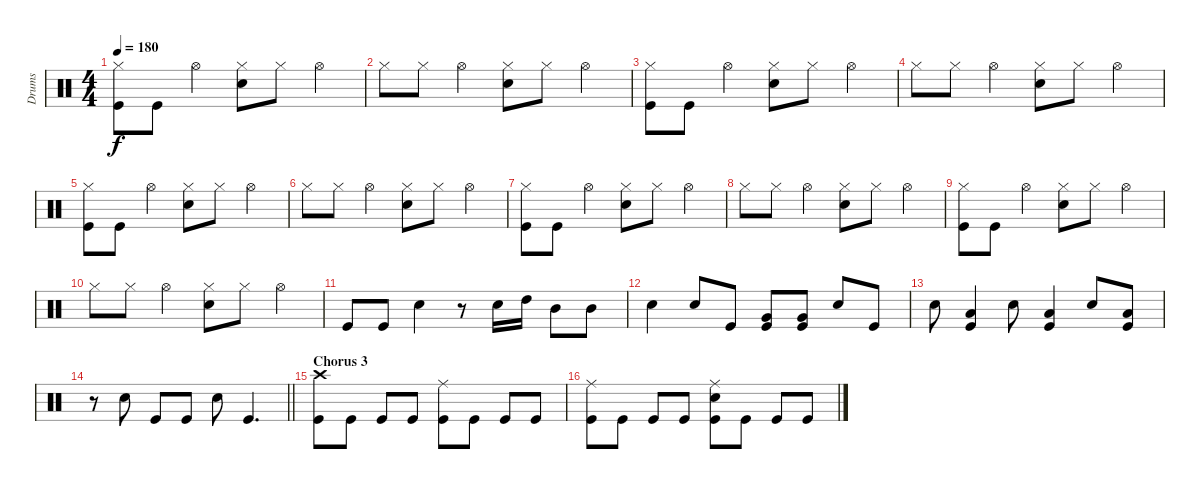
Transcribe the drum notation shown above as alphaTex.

\track ("Drums" "Drums") {instrument percussion}
\staff {score}
\articulation defaults
\ts (4 4)
\tempo 180
\clef neutral
\ks c
("Hi-Hat (closed)" "Kick (hit)").8{dy f} "Kick (hit)".8 "Hi-Hat (open)".4 ("Hi-Hat (closed)" "Snare (hit) 2").8 "Hi-Hat (closed)".8 "Hi-Hat (open)".4 |
"Hi-Hat (closed)".8 "Hi-Hat (closed)".8 "Hi-Hat (open)".4 ("Hi-Hat (closed)" "Snare (hit) 2").8 "Hi-Hat (closed)".8 "Hi-Hat (open)".4 |
("Hi-Hat (closed)" "Kick (hit)").8 "Kick (hit)".8 "Hi-Hat (open)".4 ("Hi-Hat (closed)" "Snare (hit) 2").8 "Hi-Hat (closed)".8 "Hi-Hat (open)".4 |
"Hi-Hat (closed)".8 "Hi-Hat (closed)".8 "Hi-Hat (open)".4 ("Hi-Hat (closed)" "Snare (hit) 2").8 "Hi-Hat (closed)".8 "Hi-Hat (open)".4 |
("Hi-Hat (closed)" "Kick (hit)").8 "Kick (hit)".8 "Hi-Hat (open)".4 ("Hi-Hat (closed)" "Snare (hit) 2").8 "Hi-Hat (closed)".8 "Hi-Hat (open)".4 |
"Hi-Hat (closed)".8 "Hi-Hat (closed)".8 "Hi-Hat (open)".4 ("Hi-Hat (closed)" "Snare (hit) 2").8 "Hi-Hat (closed)".8 "Hi-Hat (open)".4 |
("Hi-Hat (closed)" "Kick (hit)").8 "Kick (hit)".8 "Hi-Hat (open)".4 ("Hi-Hat (closed)" "Snare (hit) 2").8 "Hi-Hat (closed)".8 "Hi-Hat (open)".4 |
"Hi-Hat (closed)".8 "Hi-Hat (closed)".8 "Hi-Hat (open)".4 ("Hi-Hat (closed)" "Snare (hit) 2").8 "Hi-Hat (closed)".8 "Hi-Hat (open)".4 |
("Hi-Hat (closed)" "Kick (hit)").8 "Kick (hit)".8 "Hi-Hat (open)".4 ("Hi-Hat (closed)" "Snare (hit) 2").8 "Hi-Hat (closed)".8 "Hi-Hat (open)".4 |
"Hi-Hat (closed)".8 "Hi-Hat (closed)".8 "Hi-Hat (open)".4 ("Hi-Hat (closed)" "Snare (hit) 2").8 "Hi-Hat (closed)".8 "Hi-Hat (open)".4 |
"Kick (hit)".8 "Kick (hit)".8 "Snare (hit) 2".4 r.8 "Snare (hit) 2".16 "High Tom (hit)".16 "Mid Tom (hit)".8 "Mid Tom (hit)".8 |
"Snare (hit) 2".4 "Snare (hit) 2".8 "Kick (hit)".8 ("Kick (hit)" "Very Low Tom (hit)").8 ("Kick (hit)" "Very Low Tom (hit)").8 "Snare (hit) 2".8 "Kick (hit)".8 |
"Snare (hit) 2".8 ("Kick (hit)" "Low Tom (hit)").4 "Snare (hit) 2".8 ("Kick (hit)" "Low Tom (hit)").4 "Snare (hit) 2".8 ("Kick (hit)" "Low Tom (hit)").8 |
\barLineRight lightlight
r.8 "Snare (hit) 2".8 "Kick (hit)".8 "Kick (hit)".8 "Snare (hit) 2".8 "Kick (hit)".4{d} |
\section ("" "Chorus 3")
("Crash high (hit)" "Kick (hit)").8 "Kick (hit)".8 "Kick (hit)".8 "Kick (hit)".8 ("Ride (middle)" "Kick (hit)").8 "Kick (hit)".8 "Kick (hit)".8 "Kick (hit)".8 |
("Ride (middle)" "Kick (hit)").8 "Kick (hit)".8 "Kick (hit)".8 "Kick (hit)".8 ("Ride (middle)" "Snare (hit) 2" "Kick (hit)").8 "Kick (hit)".8 "Kick (hit)".8 "Kick (hit)".8
